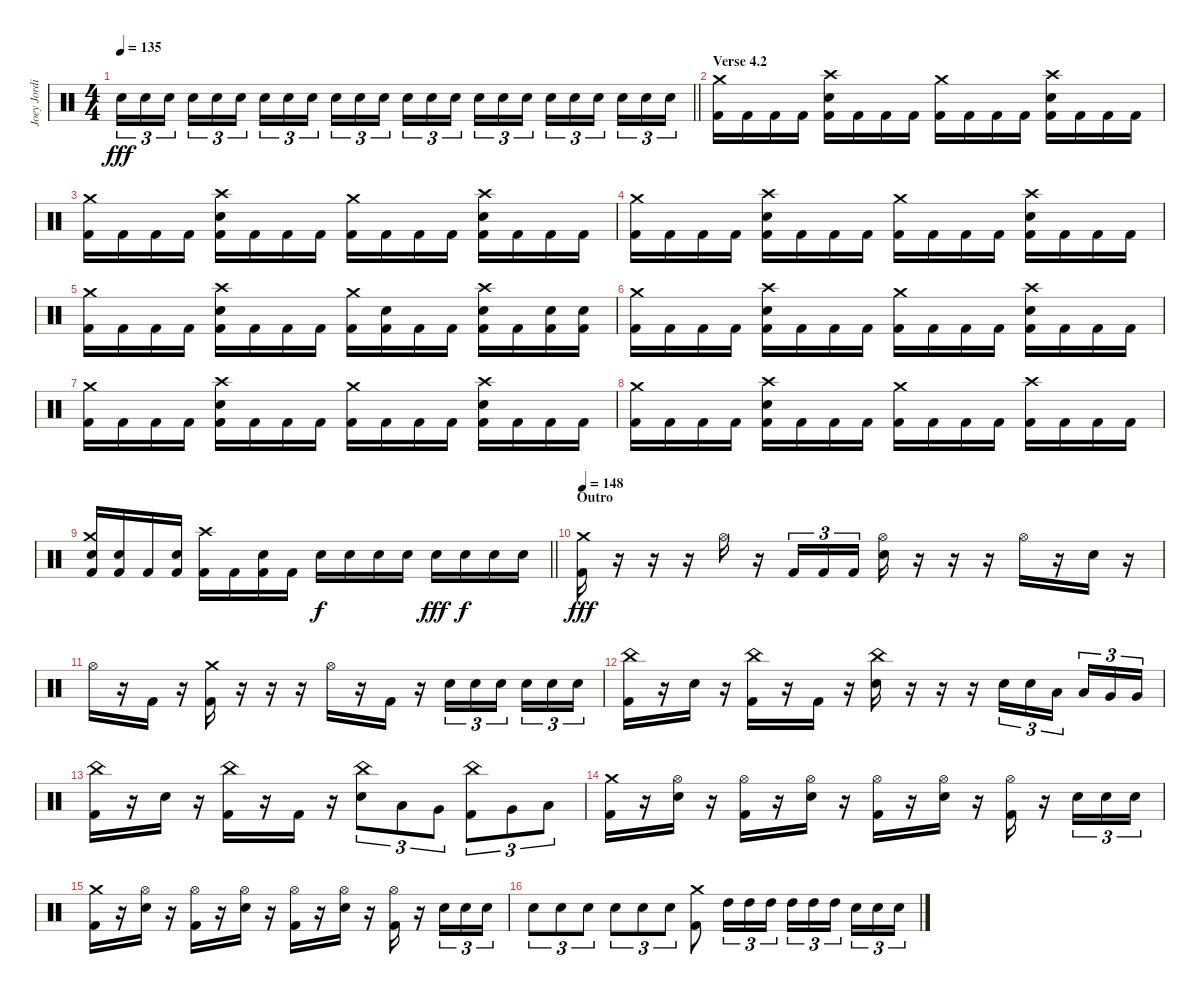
\track ("Joey Jordison" "Joey Jordi") {instrument percussion}
\staff {score}
\articulation defaults
\ts (4 4)
\tempo 135
\clef neutral
\barLineRight lightlight
\ks c "Electric Snare (hit)".16{tu (3 2) dy fff} "Electric Snare (hit)".16{tu (3 2)} "Electric Snare (hit)".16{tu (3 2) beam splitsecondary} "Electric Snare (hit)".16{tu (3 2)} "Electric Snare (hit)".16{tu (3 2)} "Electric Snare (hit)".16{tu (3 2)} "Electric Snare (hit)".16{tu (3 2)} "Electric Snare (hit)".16{tu (3 2)} "Electric Snare (hit)".16{tu (3 2) beam splitsecondary} "Electric Snare (hit)".16{tu (3 2)} "Electric Snare (hit)".16{tu (3 2)} "Electric Snare (hit)".16{tu (3 2)} "Electric Snare (hit)".16{tu (3 2)} "Electric Snare (hit)".16{tu (3 2)} "Electric Snare (hit)".16{tu (3 2) beam splitsecondary} "Electric Snare (hit)".16{tu (3 2)} "Electric Snare (hit)".16{tu (3 2)} "Electric Snare (hit)".16{tu (3 2)} "Electric Snare (hit)".16{tu (3 2)} "Electric Snare (hit)".16{tu (3 2)} "Electric Snare (hit)".16{tu (3 2) beam splitsecondary} "Electric Snare (hit)".16{tu (3 2)} "Electric Snare (hit)".16{tu (3 2)} "Electric Snare (hit)".16{tu (3 2)}
|
\section ("" "Verse 4.2")
("Crash medium (hit)" "Kick (hit) 2").16 "Kick (hit) 2".16 "Kick (hit) 2".16 "Kick (hit) 2".16 ("Crash high (hit)" "Electric Snare (hit)" "Kick (hit) 2").16 "Kick (hit) 2".16 "Kick (hit) 2".16 "Kick (hit) 2".16 ("Crash medium (hit)" "Kick (hit) 2").16 "Kick (hit) 2".16 "Kick (hit) 2".16 "Kick (hit) 2".16 ("Crash high (hit)" "Electric Snare (hit)" "Kick (hit) 2").16 "Kick (hit) 2".16 "Kick (hit) 2".16 "Kick (hit) 2".16 |
("Crash medium (hit)" "Kick (hit) 2").16 "Kick (hit) 2".16 "Kick (hit) 2".16 "Kick (hit) 2".16 ("Crash high (hit)" "Electric Snare (hit)" "Kick (hit) 2").16 "Kick (hit) 2".16 "Kick (hit) 2".16 "Kick (hit) 2".16 ("Crash medium (hit)" "Kick (hit) 2").16 "Kick (hit) 2".16 "Kick (hit) 2".16 "Kick (hit) 2".16 ("Crash high (hit)" "Electric Snare (hit)" "Kick (hit) 2").16 "Kick (hit) 2".16 "Kick (hit) 2".16 "Kick (hit) 2".16 |
("Crash medium (hit)" "Kick (hit) 2").16 "Kick (hit) 2".16 "Kick (hit) 2".16 "Kick (hit) 2".16 ("Crash high (hit)" "Electric Snare (hit)" "Kick (hit) 2").16 "Kick (hit) 2".16 "Kick (hit) 2".16 "Kick (hit) 2".16 ("Crash medium (hit)" "Kick (hit) 2").16 "Kick (hit) 2".16 "Kick (hit) 2".16 "Kick (hit) 2".16 ("Crash high (hit)" "Electric Snare (hit)" "Kick (hit) 2").16 "Kick (hit) 2".16 "Kick (hit) 2".16 "Kick (hit) 2".16 |
("Crash medium (hit)" "Kick (hit) 2").16 "Kick (hit) 2".16 "Kick (hit) 2".16 "Kick (hit) 2".16 ("Crash high (hit)" "Electric Snare (hit)" "Kick (hit) 2").16 "Kick (hit) 2".16 "Kick (hit) 2".16 "Kick (hit) 2".16 ("Crash medium (hit)" "Kick (hit) 2").16 ("Electric Snare (hit)" "Kick (hit) 2").16 "Kick (hit) 2".16 "Kick (hit) 2".16 ("Crash high (hit)" "Electric Snare (hit)" "Kick (hit) 2").16 "Kick (hit) 2".16 ("Electric Snare (hit)" "Kick (hit) 2").16 ("Electric Snare (hit)" "Kick (hit) 2").16 |
("Crash medium (hit)" "Kick (hit) 2").16 "Kick (hit) 2".16 "Kick (hit) 2".16 "Kick (hit) 2".16 ("Crash high (hit)" "Electric Snare (hit)" "Kick (hit) 2").16 "Kick (hit) 2".16 "Kick (hit) 2".16 "Kick (hit) 2".16 ("Crash medium (hit)" "Kick (hit) 2").16 "Kick (hit) 2".16 "Kick (hit) 2".16 "Kick (hit) 2".16 ("Crash high (hit)" "Electric Snare (hit)" "Kick (hit) 2").16 "Kick (hit) 2".16 "Kick (hit) 2".16 "Kick (hit) 2".16 |
("Crash medium (hit)" "Kick (hit) 2").16 "Kick (hit) 2".16 "Kick (hit) 2".16 "Kick (hit) 2".16 ("Crash high (hit)" "Electric Snare (hit)" "Kick (hit) 2").16 "Kick (hit) 2".16 "Kick (hit) 2".16 "Kick (hit) 2".16 ("Crash medium (hit)" "Kick (hit) 2").16 "Kick (hit) 2".16 "Kick (hit) 2".16 "Kick (hit) 2".16 ("Crash high (hit)" "Electric Snare (hit)" "Kick (hit) 2").16 "Kick (hit) 2".16 "Kick (hit) 2".16 "Kick (hit) 2".16 |
("Crash medium (hit)" "Kick (hit) 2").16 "Kick (hit) 2".16 "Kick (hit) 2".16 "Kick (hit) 2".16 ("Crash high (hit)" "Electric Snare (hit)" "Kick (hit) 2").16 "Kick (hit) 2".16 "Kick (hit) 2".16 "Kick (hit) 2".16 ("Crash medium (hit)" "Kick (hit) 2").16 "Kick (hit) 2".16 "Kick (hit) 2".16 "Kick (hit) 2".16 ("Crash high (hit)" "Kick (hit) 2").16 "Kick (hit) 2".16 "Kick (hit) 2".16 "Kick (hit) 2".16 |
\barLineRight lightlight
("Crash medium (hit)" "Electric Snare (hit)" "Kick (hit) 2").16 ("Electric Snare (hit)" "Kick (hit) 2").16 "Kick (hit) 2".16 ("Electric Snare (hit)" "Kick (hit) 2").16 ("Crash high (hit)" "Kick (hit) 2").16 "Kick (hit) 2".16 ("Electric Snare (hit)" "Kick (hit) 2").16 "Kick (hit) 2".16 "Electric Snare (hit)".16{dy f} "Electric Snare (hit)".16 "Electric Snare (hit)".16 "Electric Snare (hit)".16 "Electric Snare (hit)".16{dy fff} "Electric Snare (hit)".16{dy f} "Electric Snare (hit)".16 "Electric Snare (hit)".16 |
\section ("" "Outro")
\tempo 148
("Crash medium (hit)" "Kick (hit) 2").16{dy fff} r.16 r.16 r.16 "Hi-Hat (open)".16 r.16 "Kick (hit) 2".16{tu (3 2)} "Kick (hit) 2".16{tu (3 2)} "Kick (hit) 2".16{tu (3 2)} ("Hi-Hat (open)" "Electric Snare (hit)").16 r.16 r.16 r.16 "Hi-Hat (open)".16 r.16 "Electric Snare (hit)".16 r.16 |
"Hi-Hat (open)".16 r.16 "Kick (hit) 2".16 r.16 ("Crash medium (hit)" "Kick (hit) 2").16 r.16 r.16 r.16 "Hi-Hat (open)".16 r.16 "Kick (hit) 2".16 r.16 "Electric Snare (hit)".16{tu (3 2)} "Electric Snare (hit)".16{tu (3 2)} "Electric Snare (hit)".16{tu (3 2) beam splitsecondary} "Electric Snare (hit)".16{tu (3 2)} "Electric Snare (hit)".16{tu (3 2)} "Electric Snare (hit)".16{tu (3 2)} |
("China (hit)" "Kick (hit) 2").16 r.16 "Electric Snare (hit)".16 r.16 ("China (hit)" "Kick (hit) 2").16 r.16 "Kick (hit) 2".16 r.16 ("China (hit)" "Electric Snare (hit)").16 r.16 r.16 r.16 "Electric Snare (hit)".16{tu (3 2)} "Electric Snare (hit)".16{tu (3 2)} "Low Tom (hit)".16{tu (3 2) beam splitsecondary} "Low Tom (hit)".16{tu (3 2)} "Very Low Tom (hit)".16{tu (3 2)} "Very Low Tom (hit)".16{tu (3 2)} |
("China (hit)" "Kick (hit) 2").16 r.16 "Electric Snare (hit)".16 r.16 ("China (hit)" "Kick (hit) 2").16 r.16 "Kick (hit) 2".16 r.16 ("China (hit)" "Electric Snare (hit)").8{tu (3 2)} "Low Tom (hit)".8{tu (3 2)} "Very Low Tom (hit)".8{tu (3 2)} ("China (hit)" "Kick (hit) 2").8{tu (3 2)} "Very Low Tom (hit)".8{tu (3 2)} "Low Floor Tom (hit)".8{tu (3 2)} |
("Crash medium (hit)" "Kick (hit) 2").16 r.16 ("Hi-Hat (open)" "Electric Snare (hit)").16 r.16 ("Hi-Hat (open)" "Kick (hit) 2").16 r.16 ("Hi-Hat (open)" "Electric Snare (hit)").16 r.16 ("Hi-Hat (open)" "Kick (hit) 2").16 r.16 ("Hi-Hat (open)" "Electric Snare (hit)").16 r.16 ("Hi-Hat (open)" "Kick (hit) 2").16 r.16 "Electric Snare (hit)".16{tu (3 2)} "Electric Snare (hit)".16{tu (3 2)} "Electric Snare (hit)".16{tu (3 2)} |
("Crash medium (hit)" "Kick (hit) 2").16 r.16 ("Hi-Hat (open)" "Electric Snare (hit)").16 r.16 ("Hi-Hat (open)" "Kick (hit) 2").16 r.16 ("Hi-Hat (open)" "Electric Snare (hit)").16 r.16 ("Hi-Hat (open)" "Kick (hit) 2").16 r.16 ("Hi-Hat (open)" "Electric Snare (hit)").16 r.16 ("Hi-Hat (open)" "Kick (hit) 2").16 r.16 "Electric Snare (hit)".16{tu (3 2)} "Electric Snare (hit)".16{tu (3 2)} "Electric Snare (hit)".16{tu (3 2)} |
"Electric Snare (hit)".8{tu (3 2)} "Electric Snare (hit)".8{tu (3 2)} "Electric Snare (hit)".8{tu (3 2)} "Electric Snare (hit)".8{tu (3 2)} "Electric Snare (hit)".8{tu (3 2)} "Electric Snare (hit)".8{tu (3 2)} ("Crash medium (hit)" "Kick (hit) 2").8 "High Tom (hit)".16{tu (3 2)} "High Tom (hit)".16{tu (3 2)} "High Tom (hit)".16{tu (3 2)} "High Tom (hit)".16{tu (3 2)} "High Tom (hit)".16{tu (3 2)} "High Tom (hit)".16{tu (3 2) beam splitsecondary} "Electric Snare (hit)".16{tu (3 2)} "Electric Snare (hit)".16{tu (3 2)} "Electric Snare (hit)".16{tu (3 2)}
